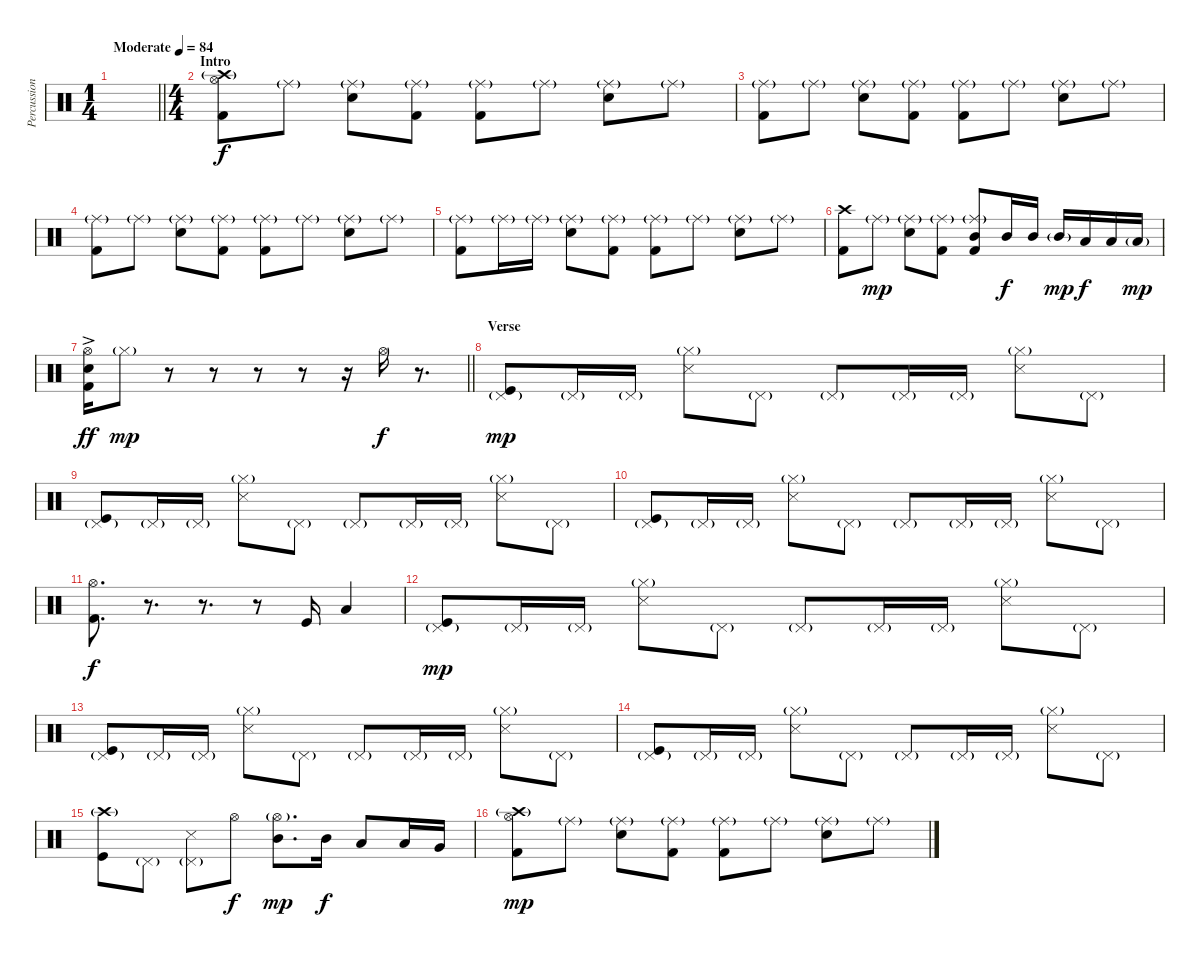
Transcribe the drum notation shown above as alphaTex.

\track ("Percussion" "Percussion") {instrument percussion}
\staff {score}
\articulation defaults
\ts (1 4)
\tempo (84 "Moderate")
\clef neutral
\barLineRight lightlight
\ks c
|
\ts (4 4)
\section ("" "Intro")
("Crash high (hit)"{g} "Hi-Hat (open)" "Kick (hit) 2").8 "Ride (middle)"{g}.8 ("Ride (middle)"{g} "Electric Snare (hit)").8 ("Ride (middle)"{g} "Kick (hit) 2").8 ("Ride (middle)"{g} "Kick (hit) 2").8 "Ride (middle)"{g}.8 ("Ride (middle)"{g} "Electric Snare (hit)").8 "Ride (middle)"{g}.8 |
("Ride (middle)"{g} "Kick (hit) 2").8 "Ride (middle)"{g}.8 ("Ride (middle)"{g} "Electric Snare (hit)").8 ("Ride (middle)"{g} "Kick (hit) 2").8 ("Ride (middle)"{g} "Kick (hit) 2").8 "Ride (middle)"{g}.8 ("Ride (middle)"{g} "Electric Snare (hit)").8 "Ride (middle)"{g}.8 |
("Ride (middle)"{g} "Kick (hit) 2").8 "Ride (middle)"{g}.8 ("Ride (middle)"{g} "Electric Snare (hit)").8 ("Ride (middle)"{g} "Kick (hit) 2").8 ("Ride (middle)"{g} "Kick (hit) 2").8 "Ride (middle)"{g}.8 ("Ride (middle)"{g} "Electric Snare (hit)").8 "Ride (middle)"{g}.8 |
("Ride (middle)"{g} "Kick (hit) 2").8 "Ride (middle)"{g}.16 "Ride (middle)"{g}.16 ("Ride (middle)"{g} "Electric Snare (hit)").8 ("Ride (middle)"{g} "Kick (hit) 2").8 ("Ride (middle)"{g} "Kick (hit) 2").8 "Ride (middle)"{g}.8 ("Ride (middle)"{g} "Electric Snare (hit)").8 "Ride (middle)"{g}.8 |
("Crash high (hit)" "Kick (hit) 2").8{dy f} "Ride (middle)"{g}.8{dy mp} ("Ride (middle)"{g} "Electric Snare (hit)").8 ("Ride (middle)"{g} "Kick (hit) 2").8 ("Ride (middle)"{g} "Mid Tom (hit)" "Kick (hit) 2").8 "Mid Tom (hit)".16{dy f} "Mid Tom (hit)".16 "Mid Tom (hit)"{g}.16{dy mp} "Low Tom (hit)".16{dy f} "Low Tom (hit)".16 "Low Tom (hit)"{g}.16{dy mp} |
\barLineRight lightlight
("Hi-Hat (open)"{ac} "Electric Snare (hit)"{ac} "Kick (hit) 2"{ac}).16{dy ff} "Hi-Hat (closed)"{g}.8{dy mp} r.8 r.8 r.8 r.8 r.16 "Hi-Hat (open)".16{dy f} r.8{d} |
\section ("" "Verse")
("Pedal Hi-Hat (hit)"{g} "Kick (hit)").8{dy mp} "Pedal Hi-Hat (hit)"{g}.16 "Pedal Hi-Hat (hit)"{g}.16 ("Hi-Hat (closed)"{g} "Snare (side stick) 3").8 "Pedal Hi-Hat (hit)"{g}.8 "Pedal Hi-Hat (hit)"{g}.8 "Pedal Hi-Hat (hit)"{g}.16 "Pedal Hi-Hat (hit)"{g}.16 ("Hi-Hat (closed)"{g} "Snare (side stick) 3").8 "Pedal Hi-Hat (hit)"{g}.8 |
("Pedal Hi-Hat (hit)"{g} "Kick (hit)").8 "Pedal Hi-Hat (hit)"{g}.16 "Pedal Hi-Hat (hit)"{g}.16 ("Hi-Hat (closed)"{g} "Snare (side stick) 3").8 "Pedal Hi-Hat (hit)"{g}.8 "Pedal Hi-Hat (hit)"{g}.8 "Pedal Hi-Hat (hit)"{g}.16 "Pedal Hi-Hat (hit)"{g}.16 ("Hi-Hat (closed)"{g} "Snare (side stick) 3").8 "Pedal Hi-Hat (hit)"{g}.8 |
("Pedal Hi-Hat (hit)"{g} "Kick (hit)").8 "Pedal Hi-Hat (hit)"{g}.16 "Pedal Hi-Hat (hit)"{g}.16 ("Hi-Hat (closed)"{g} "Snare (side stick) 3").8 "Pedal Hi-Hat (hit)"{g}.8 "Pedal Hi-Hat (hit)"{g}.8 "Pedal Hi-Hat (hit)"{g}.16 "Pedal Hi-Hat (hit)"{g}.16 ("Hi-Hat (closed)"{g} "Snare (side stick) 3").8 "Pedal Hi-Hat (hit)"{g}.8 |
("Hi-Hat (open)" "Kick (hit) 2").8{d dy f} r.8{d} r.8{d} r.8 "Kick (hit)".16 "Low Tom (hit)".4 |
("Pedal Hi-Hat (hit)"{g} "Kick (hit)").8{dy mp} "Pedal Hi-Hat (hit)"{g}.16 "Pedal Hi-Hat (hit)"{g}.16 ("Hi-Hat (closed)"{g} "Snare (side stick) 3").8 "Pedal Hi-Hat (hit)"{g}.8 "Pedal Hi-Hat (hit)"{g}.8 "Pedal Hi-Hat (hit)"{g}.16 "Pedal Hi-Hat (hit)"{g}.16 ("Hi-Hat (closed)"{g} "Snare (side stick) 3").8 "Pedal Hi-Hat (hit)"{g}.8 |
("Pedal Hi-Hat (hit)"{g} "Kick (hit)").8 "Pedal Hi-Hat (hit)"{g}.16 "Pedal Hi-Hat (hit)"{g}.16 ("Hi-Hat (closed)"{g} "Snare (side stick) 3").8 "Pedal Hi-Hat (hit)"{g}.8 "Pedal Hi-Hat (hit)"{g}.8 "Pedal Hi-Hat (hit)"{g}.16 "Pedal Hi-Hat (hit)"{g}.16 ("Hi-Hat (closed)"{g} "Snare (side stick) 3").8 "Pedal Hi-Hat (hit)"{g}.8 |
("Pedal Hi-Hat (hit)"{g} "Kick (hit)").8 "Pedal Hi-Hat (hit)"{g}.16 "Pedal Hi-Hat (hit)"{g}.16 ("Hi-Hat (closed)"{g} "Snare (side stick) 3").8 "Pedal Hi-Hat (hit)"{g}.8 "Pedal Hi-Hat (hit)"{g}.8 "Pedal Hi-Hat (hit)"{g}.16 "Pedal Hi-Hat (hit)"{g}.16 ("Hi-Hat (closed)"{g} "Snare (side stick) 3").8 "Pedal Hi-Hat (hit)"{g}.8 |
("Crash high (hit)"{g} "Kick (hit)").8 "Pedal Hi-Hat (hit)"{g}.8 ("Pedal Hi-Hat (hit)"{g} "Snare (side stick) 3").8 "Hi-Hat (open)".8{dy f} ("Hi-Hat (open)"{g} "Mid Tom (hit)").8{d dy mp} "Mid Tom (hit)".16{dy f} "Low Tom (hit)".8 "Low Tom (hit)".16 "Very Low Tom (hit)".16 |
("Crash high (hit)"{g} "Hi-Hat (open)" "Kick (hit) 2").8{dy mp} "Ride (middle)"{g}.8 ("Ride (middle)"{g} "Electric Snare (hit)").8 ("Ride (middle)"{g} "Kick (hit) 2").8 ("Ride (middle)"{g} "Kick (hit) 2").8 "Ride (middle)"{g}.8 ("Ride (middle)"{g} "Electric Snare (hit)").8 "Ride (middle)"{g}.8
